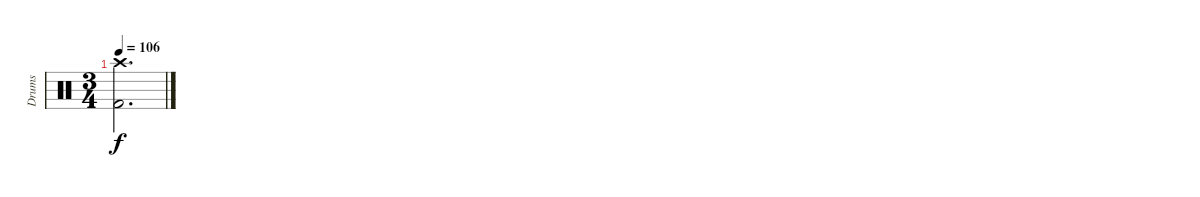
\track ("Drums" "Drums") {instrument percussion}
\staff {score}
\articulation defaults
\ts (3 4)
\tempo 106
\clef neutral
\ks c
("Crash high (hit)" "Kick (hit) 2").2{d dy f}
